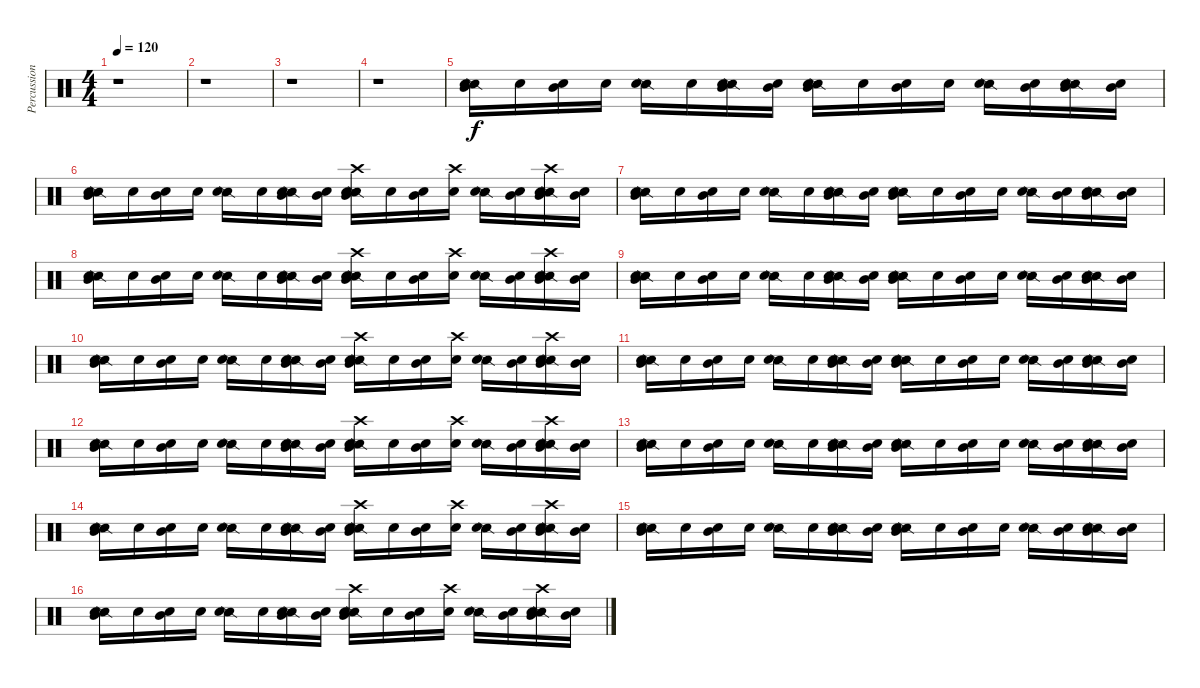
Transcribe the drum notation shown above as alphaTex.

\track ("Percussion" "Percussion") {instrument percussion}
\staff {score}
\articulation defaults
\ts (4 4)
\tempo 120
\clef neutral
\ks c
r.1{dy f} |
r.1 |
r.1 |
r.1 |
("Mid Tom (hit)" "Snare (side stick) 2" "Snare (hit) 2").16 "Snare (hit) 2".16 ("Mid Tom (hit)" "Snare (hit) 2").16 "Snare (hit) 2".16 ("Snare (side stick) 2" "Snare (hit) 2").16 "Snare (hit) 2".16 ("Mid Tom (hit)" "Snare (side stick) 2" "Snare (hit) 2").16 ("Mid Tom (hit)" "Snare (hit) 2").16 ("Mid Tom (hit)" "Snare (side stick) 2" "Snare (hit) 2").16 "Snare (hit) 2".16 ("Mid Tom (hit)" "Snare (hit) 2").16 "Snare (hit) 2".16 ("Snare (side stick) 2" "Snare (hit) 2").16 ("Mid Tom (hit)" "Snare (hit) 2").16 ("Mid Tom (hit)" "Snare (side stick) 2" "Snare (hit) 2").16 ("Mid Tom (hit)" "Snare (hit) 2").16 |
("Mid Tom (hit)" "Snare (side stick) 2" "Snare (hit) 2").16 "Snare (hit) 2".16 ("Mid Tom (hit)" "Snare (hit) 2").16 "Snare (hit) 2".16 ("Snare (side stick) 2" "Snare (hit) 2").16 "Snare (hit) 2".16 ("Mid Tom (hit)" "Snare (side stick) 2" "Snare (hit) 2").16 ("Mid Tom (hit)" "Snare (hit) 2").16 ("Mid Tom (hit)" "Crash high (hit)" "Snare (side stick) 2" "Snare (hit) 2").16 "Snare (hit) 2".16 ("Mid Tom (hit)" "Snare (hit) 2").16 ("Crash high (hit)" "Snare (hit) 2").16 ("Snare (side stick) 2" "Snare (hit) 2").16 ("Mid Tom (hit)" "Snare (hit) 2").16 ("Mid Tom (hit)" "Crash high (hit)" "Snare (side stick) 2" "Snare (hit) 2").16 ("Mid Tom (hit)" "Snare (hit) 2").16 |
("Mid Tom (hit)" "Snare (side stick) 2" "Snare (hit) 2").16 "Snare (hit) 2".16 ("Mid Tom (hit)" "Snare (hit) 2").16 "Snare (hit) 2".16 ("Snare (side stick) 2" "Snare (hit) 2").16 "Snare (hit) 2".16 ("Mid Tom (hit)" "Snare (side stick) 2" "Snare (hit) 2").16 ("Mid Tom (hit)" "Snare (hit) 2").16 ("Mid Tom (hit)" "Snare (side stick) 2" "Snare (hit) 2").16 "Snare (hit) 2".16 ("Mid Tom (hit)" "Snare (hit) 2").16 "Snare (hit) 2".16 ("Snare (side stick) 2" "Snare (hit) 2").16 ("Mid Tom (hit)" "Snare (hit) 2").16 ("Mid Tom (hit)" "Snare (side stick) 2" "Snare (hit) 2").16 ("Mid Tom (hit)" "Snare (hit) 2").16 |
("Mid Tom (hit)" "Snare (side stick) 2" "Snare (hit) 2").16 "Snare (hit) 2".16 ("Mid Tom (hit)" "Snare (hit) 2").16 "Snare (hit) 2".16 ("Snare (side stick) 2" "Snare (hit) 2").16 "Snare (hit) 2".16 ("Mid Tom (hit)" "Snare (side stick) 2" "Snare (hit) 2").16 ("Mid Tom (hit)" "Snare (hit) 2").16 ("Mid Tom (hit)" "Crash high (hit)" "Snare (side stick) 2" "Snare (hit) 2").16 "Snare (hit) 2".16 ("Mid Tom (hit)" "Snare (hit) 2").16 ("Crash high (hit)" "Snare (hit) 2").16 ("Snare (side stick) 2" "Snare (hit) 2").16 ("Mid Tom (hit)" "Snare (hit) 2").16 ("Mid Tom (hit)" "Crash high (hit)" "Snare (side stick) 2" "Snare (hit) 2").16 ("Mid Tom (hit)" "Snare (hit) 2").16 |
("Mid Tom (hit)" "Snare (side stick) 2" "Snare (hit) 2").16 "Snare (hit) 2".16 ("Mid Tom (hit)" "Snare (hit) 2").16 "Snare (hit) 2".16 ("Snare (side stick) 2" "Snare (hit) 2").16 "Snare (hit) 2".16 ("Mid Tom (hit)" "Snare (side stick) 2" "Snare (hit) 2").16 ("Mid Tom (hit)" "Snare (hit) 2").16 ("Mid Tom (hit)" "Snare (side stick) 2" "Snare (hit) 2").16 "Snare (hit) 2".16 ("Mid Tom (hit)" "Snare (hit) 2").16 "Snare (hit) 2".16 ("Snare (side stick) 2" "Snare (hit) 2").16 ("Mid Tom (hit)" "Snare (hit) 2").16 ("Mid Tom (hit)" "Snare (side stick) 2" "Snare (hit) 2").16 ("Mid Tom (hit)" "Snare (hit) 2").16 |
("Mid Tom (hit)" "Snare (side stick) 2" "Snare (hit) 2").16 "Snare (hit) 2".16 ("Mid Tom (hit)" "Snare (hit) 2").16 "Snare (hit) 2".16 ("Snare (side stick) 2" "Snare (hit) 2").16 "Snare (hit) 2".16 ("Mid Tom (hit)" "Snare (side stick) 2" "Snare (hit) 2").16 ("Mid Tom (hit)" "Snare (hit) 2").16 ("Mid Tom (hit)" "Crash high (hit)" "Snare (side stick) 2" "Snare (hit) 2").16 "Snare (hit) 2".16 ("Mid Tom (hit)" "Snare (hit) 2").16 ("Crash high (hit)" "Snare (hit) 2").16 ("Snare (side stick) 2" "Snare (hit) 2").16 ("Mid Tom (hit)" "Snare (hit) 2").16 ("Mid Tom (hit)" "Crash high (hit)" "Snare (side stick) 2" "Snare (hit) 2").16 ("Mid Tom (hit)" "Snare (hit) 2").16 |
("Mid Tom (hit)" "Snare (side stick) 2" "Snare (hit) 2").16 "Snare (hit) 2".16 ("Mid Tom (hit)" "Snare (hit) 2").16 "Snare (hit) 2".16 ("Snare (side stick) 2" "Snare (hit) 2").16 "Snare (hit) 2".16 ("Mid Tom (hit)" "Snare (side stick) 2" "Snare (hit) 2").16 ("Mid Tom (hit)" "Snare (hit) 2").16 ("Mid Tom (hit)" "Snare (side stick) 2" "Snare (hit) 2").16 "Snare (hit) 2".16 ("Mid Tom (hit)" "Snare (hit) 2").16 "Snare (hit) 2".16 ("Snare (side stick) 2" "Snare (hit) 2").16 ("Mid Tom (hit)" "Snare (hit) 2").16 ("Mid Tom (hit)" "Snare (side stick) 2" "Snare (hit) 2").16 ("Mid Tom (hit)" "Snare (hit) 2").16 |
("Mid Tom (hit)" "Snare (side stick) 2" "Snare (hit) 2").16 "Snare (hit) 2".16 ("Mid Tom (hit)" "Snare (hit) 2").16 "Snare (hit) 2".16 ("Snare (side stick) 2" "Snare (hit) 2").16 "Snare (hit) 2".16 ("Mid Tom (hit)" "Snare (side stick) 2" "Snare (hit) 2").16 ("Mid Tom (hit)" "Snare (hit) 2").16 ("Mid Tom (hit)" "Crash high (hit)" "Snare (side stick) 2" "Snare (hit) 2").16 "Snare (hit) 2".16 ("Mid Tom (hit)" "Snare (hit) 2").16 ("Crash high (hit)" "Snare (hit) 2").16 ("Snare (side stick) 2" "Snare (hit) 2").16 ("Mid Tom (hit)" "Snare (hit) 2").16 ("Mid Tom (hit)" "Crash high (hit)" "Snare (side stick) 2" "Snare (hit) 2").16 ("Mid Tom (hit)" "Snare (hit) 2").16 |
("Mid Tom (hit)" "Snare (side stick) 2" "Snare (hit) 2").16 "Snare (hit) 2".16 ("Mid Tom (hit)" "Snare (hit) 2").16 "Snare (hit) 2".16 ("Snare (side stick) 2" "Snare (hit) 2").16 "Snare (hit) 2".16 ("Mid Tom (hit)" "Snare (side stick) 2" "Snare (hit) 2").16 ("Mid Tom (hit)" "Snare (hit) 2").16 ("Mid Tom (hit)" "Snare (side stick) 2" "Snare (hit) 2").16 "Snare (hit) 2".16 ("Mid Tom (hit)" "Snare (hit) 2").16 "Snare (hit) 2".16 ("Snare (side stick) 2" "Snare (hit) 2").16 ("Mid Tom (hit)" "Snare (hit) 2").16 ("Mid Tom (hit)" "Snare (side stick) 2" "Snare (hit) 2").16 ("Mid Tom (hit)" "Snare (hit) 2").16 |
("Mid Tom (hit)" "Snare (side stick) 2" "Snare (hit) 2").16 "Snare (hit) 2".16 ("Mid Tom (hit)" "Snare (hit) 2").16 "Snare (hit) 2".16 ("Snare (side stick) 2" "Snare (hit) 2").16 "Snare (hit) 2".16 ("Mid Tom (hit)" "Snare (side stick) 2" "Snare (hit) 2").16 ("Mid Tom (hit)" "Snare (hit) 2").16 ("Mid Tom (hit)" "Crash high (hit)" "Snare (side stick) 2" "Snare (hit) 2").16 "Snare (hit) 2".16 ("Mid Tom (hit)" "Snare (hit) 2").16 ("Crash high (hit)" "Snare (hit) 2").16 ("Snare (side stick) 2" "Snare (hit) 2").16 ("Mid Tom (hit)" "Snare (hit) 2").16 ("Mid Tom (hit)" "Crash high (hit)" "Snare (side stick) 2" "Snare (hit) 2").16 ("Mid Tom (hit)" "Snare (hit) 2").16 |
("Mid Tom (hit)" "Snare (side stick) 2" "Snare (hit) 2").16 "Snare (hit) 2".16 ("Mid Tom (hit)" "Snare (hit) 2").16 "Snare (hit) 2".16 ("Snare (side stick) 2" "Snare (hit) 2").16 "Snare (hit) 2".16 ("Mid Tom (hit)" "Snare (side stick) 2" "Snare (hit) 2").16 ("Mid Tom (hit)" "Snare (hit) 2").16 ("Mid Tom (hit)" "Snare (side stick) 2" "Snare (hit) 2").16 "Snare (hit) 2".16 ("Mid Tom (hit)" "Snare (hit) 2").16 "Snare (hit) 2".16 ("Snare (side stick) 2" "Snare (hit) 2").16 ("Mid Tom (hit)" "Snare (hit) 2").16 ("Mid Tom (hit)" "Snare (side stick) 2" "Snare (hit) 2").16 ("Mid Tom (hit)" "Snare (hit) 2").16 |
("Mid Tom (hit)" "Snare (side stick) 2" "Snare (hit) 2").16 "Snare (hit) 2".16 ("Mid Tom (hit)" "Snare (hit) 2").16 "Snare (hit) 2".16 ("Snare (side stick) 2" "Snare (hit) 2").16 "Snare (hit) 2".16 ("Mid Tom (hit)" "Snare (side stick) 2" "Snare (hit) 2").16 ("Mid Tom (hit)" "Snare (hit) 2").16 ("Mid Tom (hit)" "Crash high (hit)" "Snare (side stick) 2" "Snare (hit) 2").16 "Snare (hit) 2".16 ("Mid Tom (hit)" "Snare (hit) 2").16 ("Crash high (hit)" "Snare (hit) 2").16 ("Snare (side stick) 2" "Snare (hit) 2").16 ("Mid Tom (hit)" "Snare (hit) 2").16 ("Mid Tom (hit)" "Crash high (hit)" "Snare (side stick) 2" "Snare (hit) 2").16 ("Mid Tom (hit)" "Snare (hit) 2").16
